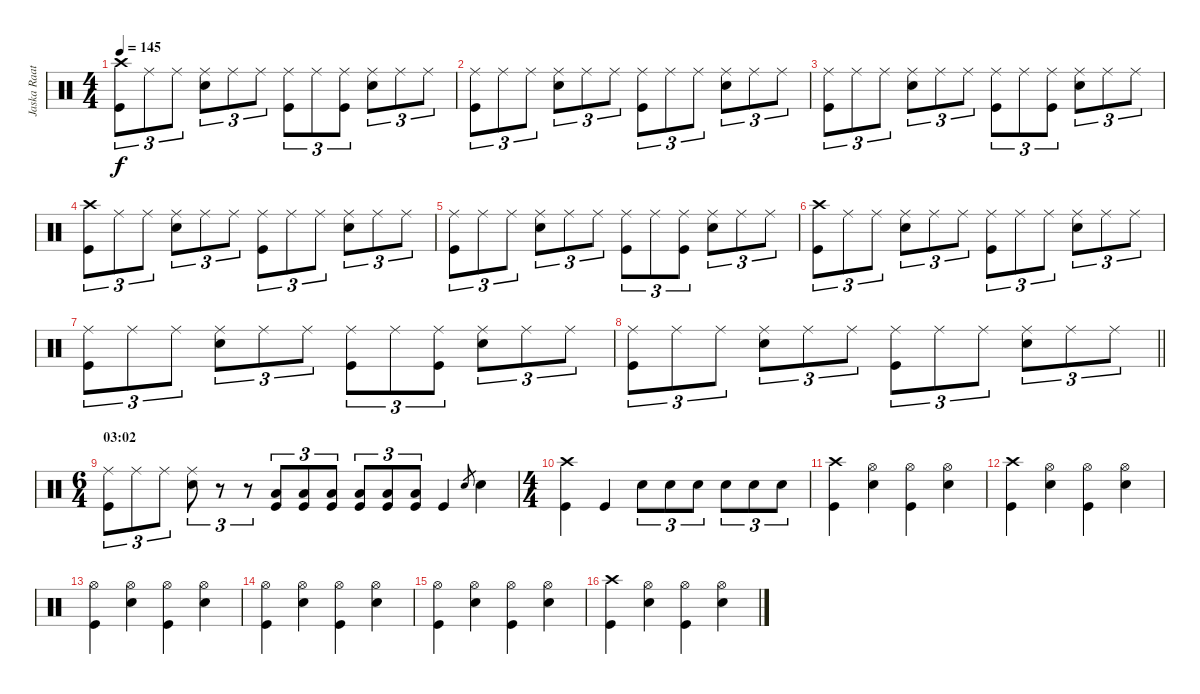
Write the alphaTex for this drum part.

\track ("Jaska Raatikainen" "Jaska Raat") {instrument percussion}
\staff {score}
\articulation defaults
\ts (4 4)
\tempo 145
\clef neutral
\ks c
("Crash high (hit)" "Kick (hit)").8{tu (3 2) dy f} "Ride (middle)".8{tu (3 2)} "Ride (middle)".8{tu (3 2)} ("Ride (middle)" "Electric Snare (hit)").8{tu (3 2)} "Ride (middle)".8{tu (3 2)} "Ride (middle)".8{tu (3 2)} ("Ride (middle)" "Kick (hit)").8{tu (3 2)} "Ride (middle)".8{tu (3 2)} ("Ride (middle)" "Kick (hit)").8{tu (3 2)} ("Ride (middle)" "Electric Snare (hit)").8{tu (3 2)} "Ride (middle)".8{tu (3 2)} "Ride (middle)".8{tu (3 2)} |
("Ride (middle)" "Kick (hit)").8{tu (3 2)} "Ride (middle)".8{tu (3 2)} "Ride (middle)".8{tu (3 2)} ("Ride (middle)" "Electric Snare (hit)").8{tu (3 2)} "Ride (middle)".8{tu (3 2)} "Ride (middle)".8{tu (3 2)} ("Ride (middle)" "Kick (hit)").8{tu (3 2)} "Ride (middle)".8{tu (3 2)} "Ride (middle)".8{tu (3 2)} ("Ride (middle)" "Electric Snare (hit)").8{tu (3 2)} "Ride (middle)".8{tu (3 2)} "Ride (middle)".8{tu (3 2)} |
("Ride (middle)" "Kick (hit)").8{tu (3 2)} "Ride (middle)".8{tu (3 2)} "Ride (middle)".8{tu (3 2)} ("Ride (middle)" "Electric Snare (hit)").8{tu (3 2)} "Ride (middle)".8{tu (3 2)} "Ride (middle)".8{tu (3 2)} ("Ride (middle)" "Kick (hit)").8{tu (3 2)} "Ride (middle)".8{tu (3 2)} ("Ride (middle)" "Kick (hit)").8{tu (3 2)} ("Ride (middle)" "Electric Snare (hit)").8{tu (3 2)} "Ride (middle)".8{tu (3 2)} "Ride (middle)".8{tu (3 2)} |
("Crash high (hit)" "Kick (hit)").8{tu (3 2)} "Ride (middle)".8{tu (3 2)} "Ride (middle)".8{tu (3 2)} ("Ride (middle)" "Electric Snare (hit)").8{tu (3 2)} "Ride (middle)".8{tu (3 2)} "Ride (middle)".8{tu (3 2)} ("Ride (middle)" "Kick (hit)").8{tu (3 2)} "Ride (middle)".8{tu (3 2)} "Ride (middle)".8{tu (3 2)} ("Ride (middle)" "Electric Snare (hit)").8{tu (3 2)} "Ride (middle)".8{tu (3 2)} "Ride (middle)".8{tu (3 2)} |
("Ride (middle)" "Kick (hit)").8{tu (3 2)} "Ride (middle)".8{tu (3 2)} "Ride (middle)".8{tu (3 2)} ("Ride (middle)" "Electric Snare (hit)").8{tu (3 2)} "Ride (middle)".8{tu (3 2)} "Ride (middle)".8{tu (3 2)} ("Ride (middle)" "Kick (hit)").8{tu (3 2)} "Ride (middle)".8{tu (3 2)} ("Ride (middle)" "Kick (hit)").8{tu (3 2)} ("Ride (middle)" "Electric Snare (hit)").8{tu (3 2)} "Ride (middle)".8{tu (3 2)} "Ride (middle)".8{tu (3 2)} |
("Crash high (hit)" "Kick (hit)").8{tu (3 2)} "Ride (middle)".8{tu (3 2)} "Ride (middle)".8{tu (3 2)} ("Ride (middle)" "Electric Snare (hit)").8{tu (3 2)} "Ride (middle)".8{tu (3 2)} "Ride (middle)".8{tu (3 2)} ("Ride (middle)" "Kick (hit)").8{tu (3 2)} "Ride (middle)".8{tu (3 2)} "Ride (middle)".8{tu (3 2)} ("Ride (middle)" "Electric Snare (hit)").8{tu (3 2)} "Ride (middle)".8{tu (3 2)} "Ride (middle)".8{tu (3 2)} |
("Ride (middle)" "Kick (hit)").8{tu (3 2)} "Ride (middle)".8{tu (3 2)} "Ride (middle)".8{tu (3 2)} ("Ride (middle)" "Electric Snare (hit)").8{tu (3 2)} "Ride (middle)".8{tu (3 2)} "Ride (middle)".8{tu (3 2)} ("Ride (middle)" "Kick (hit)").8{tu (3 2)} "Ride (middle)".8{tu (3 2)} ("Ride (middle)" "Kick (hit)").8{tu (3 2)} ("Ride (middle)" "Electric Snare (hit)").8{tu (3 2)} "Ride (middle)".8{tu (3 2)} "Ride (middle)".8{tu (3 2)} |
\barLineRight lightlight
("Ride (middle)" "Kick (hit)").8{tu (3 2)} "Ride (middle)".8{tu (3 2)} "Ride (middle)".8{tu (3 2)} ("Ride (middle)" "Electric Snare (hit)").8{tu (3 2)} "Ride (middle)".8{tu (3 2)} "Ride (middle)".8{tu (3 2)} ("Ride (middle)" "Kick (hit)").8{tu (3 2)} "Ride (middle)".8{tu (3 2)} "Ride (middle)".8{tu (3 2)} ("Ride (middle)" "Electric Snare (hit)").8{tu (3 2)} "Ride (middle)".8{tu (3 2)} "Ride (middle)".8{tu (3 2)} |
\ts (6 4)
\section ("" "03:02")
("Ride (middle)" "Kick (hit)").8{tu (3 2)} "Ride (middle)".8{tu (3 2)} "Ride (middle)".8{tu (3 2)} ("Ride (middle)" "Electric Snare (hit)").8{tu (3 2)} r.8{tu (3 2)} r.8{tu (3 2)} ("Low Tom (hit)" "Kick (hit)").8{tu (3 2)} ("Low Tom (hit)" "Kick (hit)").8{tu (3 2)} ("Low Tom (hit)" "Kick (hit)").8{tu (3 2)} ("Low Tom (hit)" "Kick (hit)").8{tu (3 2)} ("Low Tom (hit)" "Kick (hit)").8{tu (3 2)} ("Low Tom (hit)" "Kick (hit)").8{tu (3 2)} "Kick (hit)".4 "Electric Snare (hit)".8{gr} "Electric Snare (hit)".4 |
\ts (4 4)
("Crash high (hit)" "Kick (hit)").4 "Kick (hit)".4 "Electric Snare (hit)".8{tu (3 2)} "Electric Snare (hit)".8{tu (3 2)} "Electric Snare (hit)".8{tu (3 2)} "Electric Snare (hit)".8{tu (3 2)} "Electric Snare (hit)".8{tu (3 2)} "Electric Snare (hit)".8{tu (3 2)} |
("Crash high (hit)" "Kick (hit)").4 ("Hi-Hat (open)" "Electric Snare (hit)").4 ("Hi-Hat (open)" "Kick (hit)").4 ("Hi-Hat (open)" "Electric Snare (hit)").4 |
("Crash high (hit)" "Kick (hit)").4 ("Hi-Hat (open)" "Electric Snare (hit)").4 ("Hi-Hat (open)" "Kick (hit)").4 ("Hi-Hat (open)" "Electric Snare (hit)").4 |
("Hi-Hat (open)" "Kick (hit)").4 ("Hi-Hat (open)" "Electric Snare (hit)").4 ("Hi-Hat (open)" "Kick (hit)").4 ("Hi-Hat (open)" "Electric Snare (hit)").4 |
("Hi-Hat (open)" "Kick (hit)").4 ("Hi-Hat (open)" "Electric Snare (hit)").4 ("Hi-Hat (open)" "Kick (hit)").4 ("Hi-Hat (open)" "Electric Snare (hit)").4 |
("Hi-Hat (open)" "Kick (hit)").4 ("Hi-Hat (open)" "Electric Snare (hit)").4 ("Hi-Hat (open)" "Kick (hit)").4 ("Hi-Hat (open)" "Electric Snare (hit)").4 |
("Crash high (hit)" "Kick (hit)").4 ("Hi-Hat (open)" "Electric Snare (hit)").4 ("Hi-Hat (open)" "Kick (hit)").4 ("Hi-Hat (open)" "Electric Snare (hit)").4
